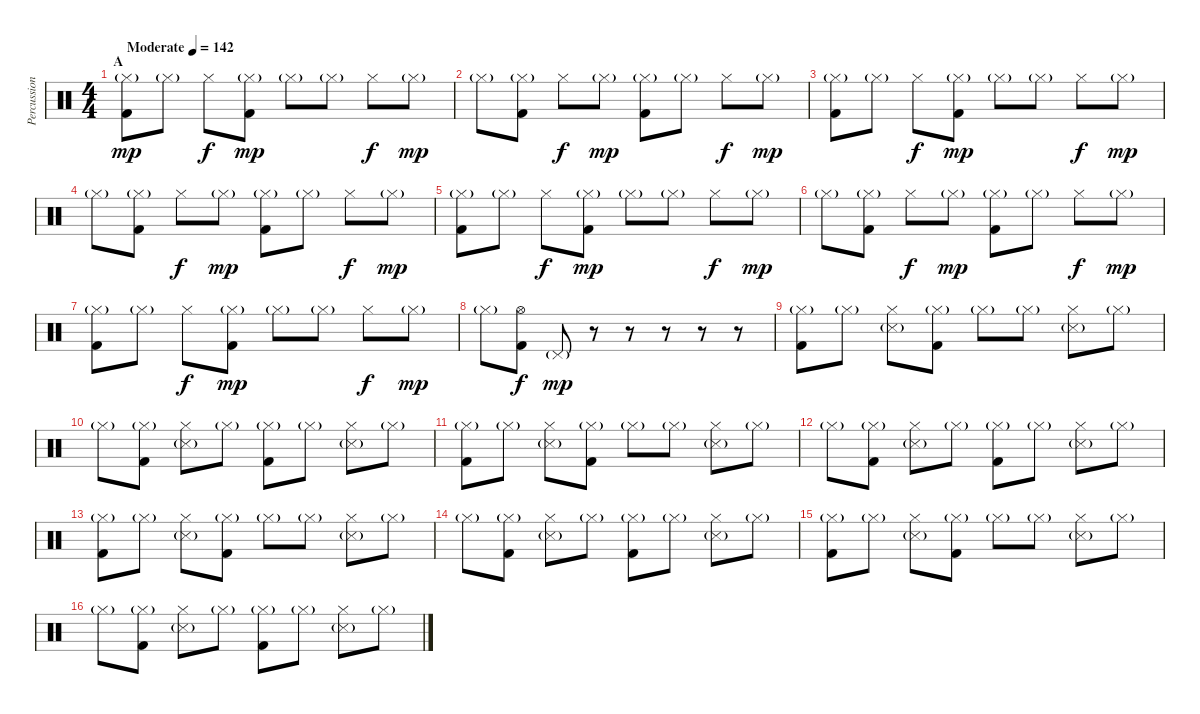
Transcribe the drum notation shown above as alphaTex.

\track ("Percussion" "Percussion") {instrument percussion}
\staff {score}
\articulation defaults
\ts (4 4)
\section ("" "A")
\tempo (142 "Moderate")
\clef neutral
\ks c
("Hi-Hat (closed)"{g} "Kick (hit) 2").8{dy mp} "Hi-Hat (closed)"{g}.8 "Hi-Hat (closed)".8{dy f} ("Hi-Hat (closed)"{g} "Kick (hit) 2").8{dy mp} "Hi-Hat (closed)"{g}.8 "Hi-Hat (closed)"{g}.8 "Hi-Hat (closed)".8{dy f} "Hi-Hat (closed)"{g}.8{dy mp} |
"Hi-Hat (closed)"{g}.8 ("Hi-Hat (closed)"{g} "Kick (hit) 2").8 "Hi-Hat (closed)".8{dy f} "Hi-Hat (closed)"{g}.8{dy mp} ("Hi-Hat (closed)"{g} "Kick (hit) 2").8 "Hi-Hat (closed)"{g}.8 "Hi-Hat (closed)".8{dy f} "Hi-Hat (closed)"{g}.8{dy mp} |
("Hi-Hat (closed)"{g} "Kick (hit) 2").8 "Hi-Hat (closed)"{g}.8 "Hi-Hat (closed)".8{dy f} ("Hi-Hat (closed)"{g} "Kick (hit) 2").8{dy mp} "Hi-Hat (closed)"{g}.8 "Hi-Hat (closed)"{g}.8 "Hi-Hat (closed)".8{dy f} "Hi-Hat (closed)"{g}.8{dy mp} |
"Hi-Hat (closed)"{g}.8 ("Hi-Hat (closed)"{g} "Kick (hit) 2").8 "Hi-Hat (closed)".8{dy f} "Hi-Hat (closed)"{g}.8{dy mp} ("Hi-Hat (closed)"{g} "Kick (hit) 2").8 "Hi-Hat (closed)"{g}.8 "Hi-Hat (closed)".8{dy f} "Hi-Hat (closed)"{g}.8{dy mp} |
("Hi-Hat (closed)"{g} "Kick (hit) 2").8 "Hi-Hat (closed)"{g}.8 "Hi-Hat (closed)".8{dy f} ("Hi-Hat (closed)"{g} "Kick (hit) 2").8{dy mp} "Hi-Hat (closed)"{g}.8 "Hi-Hat (closed)"{g}.8 "Hi-Hat (closed)".8{dy f} "Hi-Hat (closed)"{g}.8{dy mp} |
"Hi-Hat (closed)"{g}.8 ("Hi-Hat (closed)"{g} "Kick (hit) 2").8 "Hi-Hat (closed)".8{dy f} "Hi-Hat (closed)"{g}.8{dy mp} ("Hi-Hat (closed)"{g} "Kick (hit) 2").8 "Hi-Hat (closed)"{g}.8 "Hi-Hat (closed)".8{dy f} "Hi-Hat (closed)"{g}.8{dy mp} |
("Hi-Hat (closed)"{g} "Kick (hit) 2").8 "Hi-Hat (closed)"{g}.8 "Hi-Hat (closed)".8{dy f} ("Hi-Hat (closed)"{g} "Kick (hit) 2").8{dy mp} "Hi-Hat (closed)"{g}.8 "Hi-Hat (closed)"{g}.8 "Hi-Hat (closed)".8{dy f} "Hi-Hat (closed)"{g}.8{dy mp} |
"Hi-Hat (closed)"{g}.8 ("Hi-Hat (open)" "Kick (hit) 2").8{dy f} "Pedal Hi-Hat (hit)"{g}.8{dy mp} r.8 r.8 r.8 r.8 r.8 |
("Hi-Hat (closed)"{g} "Kick (hit) 2").8 "Hi-Hat (closed)"{g}.8 ("Hi-Hat (closed)" "Snare (side stick) 3"{g}).8 ("Hi-Hat (closed)"{g} "Kick (hit) 2").8 "Hi-Hat (closed)"{g}.8 "Hi-Hat (closed)"{g}.8 ("Hi-Hat (closed)" "Snare (side stick) 3"{g}).8 "Hi-Hat (closed)"{g}.8 |
"Hi-Hat (closed)"{g}.8 ("Hi-Hat (closed)"{g} "Kick (hit) 2").8 ("Hi-Hat (closed)" "Snare (side stick) 3"{g}).8 "Hi-Hat (closed)"{g}.8 ("Hi-Hat (closed)"{g} "Kick (hit) 2").8 "Hi-Hat (closed)"{g}.8 ("Hi-Hat (closed)" "Snare (side stick) 3"{g}).8 "Hi-Hat (closed)"{g}.8 |
("Hi-Hat (closed)"{g} "Kick (hit) 2").8 "Hi-Hat (closed)"{g}.8 ("Hi-Hat (closed)" "Snare (side stick) 3"{g}).8 ("Hi-Hat (closed)"{g} "Kick (hit) 2").8 "Hi-Hat (closed)"{g}.8 "Hi-Hat (closed)"{g}.8 ("Hi-Hat (closed)" "Snare (side stick) 3"{g}).8 "Hi-Hat (closed)"{g}.8 |
"Hi-Hat (closed)"{g}.8 ("Hi-Hat (closed)"{g} "Kick (hit) 2").8 ("Hi-Hat (closed)" "Snare (side stick) 3"{g}).8 "Hi-Hat (closed)"{g}.8 ("Hi-Hat (closed)"{g} "Kick (hit) 2").8 "Hi-Hat (closed)"{g}.8 ("Hi-Hat (closed)" "Snare (side stick) 3"{g}).8 "Hi-Hat (closed)"{g}.8 |
("Hi-Hat (closed)"{g} "Kick (hit) 2").8 "Hi-Hat (closed)"{g}.8 ("Hi-Hat (closed)" "Snare (side stick) 3"{g}).8 ("Hi-Hat (closed)"{g} "Kick (hit) 2").8 "Hi-Hat (closed)"{g}.8 "Hi-Hat (closed)"{g}.8 ("Hi-Hat (closed)" "Snare (side stick) 3"{g}).8 "Hi-Hat (closed)"{g}.8 |
"Hi-Hat (closed)"{g}.8 ("Hi-Hat (closed)"{g} "Kick (hit) 2").8 ("Hi-Hat (closed)" "Snare (side stick) 3"{g}).8 "Hi-Hat (closed)"{g}.8 ("Hi-Hat (closed)"{g} "Kick (hit) 2").8 "Hi-Hat (closed)"{g}.8 ("Hi-Hat (closed)" "Snare (side stick) 3"{g}).8 "Hi-Hat (closed)"{g}.8 |
("Hi-Hat (closed)"{g} "Kick (hit) 2").8 "Hi-Hat (closed)"{g}.8 ("Hi-Hat (closed)" "Snare (side stick) 3"{g}).8 ("Hi-Hat (closed)"{g} "Kick (hit) 2").8 "Hi-Hat (closed)"{g}.8 "Hi-Hat (closed)"{g}.8 ("Hi-Hat (closed)" "Snare (side stick) 3"{g}).8 "Hi-Hat (closed)"{g}.8 |
"Hi-Hat (closed)"{g}.8 ("Hi-Hat (closed)"{g} "Kick (hit) 2").8 ("Hi-Hat (closed)" "Snare (side stick) 3"{g}).8 "Hi-Hat (closed)"{g}.8 ("Hi-Hat (closed)"{g} "Kick (hit) 2").8 "Hi-Hat (closed)"{g}.8 ("Hi-Hat (closed)" "Snare (side stick) 3"{g}).8 "Hi-Hat (closed)"{g}.8
